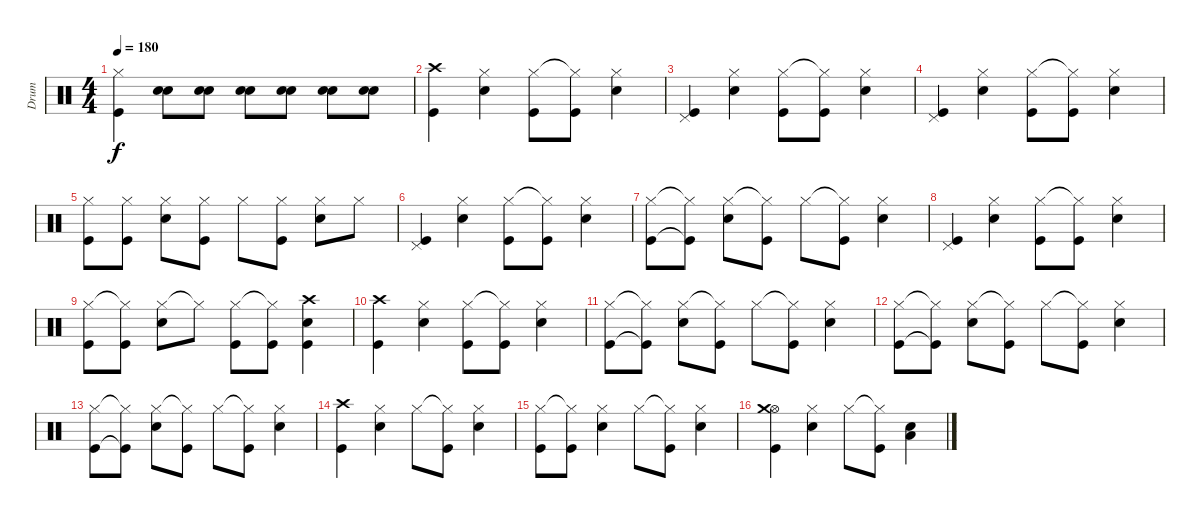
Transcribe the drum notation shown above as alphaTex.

\track ("Drum" "Drum") {instrument percussion}
\staff {score}
\articulation defaults
\ts (4 4)
\tempo 180
\clef neutral
\ks c
("Hi-Hat (closed)" "Kick (hit)").4{dy f} ("Snare (hit) 2" "Snare (hit) 2").8 ("Snare (hit) 2" "Snare (hit) 2").8 ("Snare (hit) 2" "Snare (hit) 2").8 ("Snare (hit) 2" "Snare (hit) 2").8 ("Snare (hit) 2" "Snare (hit) 2").8 ("Snare (hit) 2" "Snare (hit) 2").8 |
("Crash high (hit)" "Kick (hit)").4 ("Hi-Hat (closed)" "Snare (hit) 2").4 ("Hi-Hat (closed)" "Kick (hit)").8 ("Hi-Hat (closed)"{t} "Kick (hit)").8 ("Hi-Hat (closed)" "Snare (hit) 2").4 |
("Pedal Hi-Hat (hit)" "Kick (hit)").4 ("Hi-Hat (closed)" "Snare (hit) 2").4 ("Hi-Hat (closed)" "Kick (hit)").8 ("Hi-Hat (closed)"{t} "Kick (hit)").8 ("Hi-Hat (closed)" "Snare (hit) 2").4 |
("Pedal Hi-Hat (hit)" "Kick (hit)").4 ("Hi-Hat (closed)" "Snare (hit) 2").4 ("Hi-Hat (closed)" "Kick (hit)").8 ("Hi-Hat (closed)"{t} "Kick (hit)").8 ("Hi-Hat (closed)" "Snare (hit) 2").4 |
("Hi-Hat (closed)" "Kick (hit)").8 ("Hi-Hat (closed)" "Kick (hit)").8 ("Hi-Hat (closed)" "Snare (hit) 2").8 ("Hi-Hat (closed)" "Kick (hit)").8 "Hi-Hat (closed)".8 ("Hi-Hat (closed)" "Kick (hit)").8 ("Hi-Hat (closed)" "Snare (hit) 2").8 "Hi-Hat (closed)".8 |
("Pedal Hi-Hat (hit)" "Kick (hit)").4 ("Hi-Hat (closed)" "Snare (hit) 2").4 ("Hi-Hat (closed)" "Kick (hit)").8 ("Hi-Hat (closed)"{t} "Kick (hit)").8 ("Hi-Hat (closed)" "Snare (hit) 2").4 |
("Hi-Hat (closed)" "Kick (hit)").8 ("Hi-Hat (closed)"{t} "Kick (hit)"{t}).8 ("Hi-Hat (closed)" "Snare (hit) 2").8 ("Hi-Hat (closed)"{t} "Kick (hit)").8 "Hi-Hat (closed)".8 ("Hi-Hat (closed)"{t} "Kick (hit)").8 ("Hi-Hat (closed)" "Snare (hit) 2").4 |
("Pedal Hi-Hat (hit)" "Kick (hit)").4 ("Hi-Hat (closed)" "Snare (hit) 2").4 ("Hi-Hat (closed)" "Kick (hit)").8 ("Hi-Hat (closed)"{t} "Kick (hit)").8 ("Hi-Hat (closed)" "Snare (hit) 2").4 |
("Hi-Hat (closed)" "Kick (hit)").8 ("Hi-Hat (closed)"{t} "Kick (hit)").8 ("Hi-Hat (closed)" "Snare (hit) 2").8 "Hi-Hat (closed)"{t}.8 ("Hi-Hat (closed)" "Kick (hit)").8 ("Hi-Hat (closed)"{t} "Kick (hit)").8 ("Crash high (hit)" "Snare (hit) 2" "Kick (hit)").4 |
("Crash high (hit)" "Kick (hit)").4 ("Hi-Hat (closed)" "Snare (hit) 2").4 ("Hi-Hat (closed)" "Kick (hit)").8 ("Hi-Hat (closed)"{t} "Kick (hit)").8 ("Hi-Hat (closed)" "Snare (hit) 2").4 |
("Hi-Hat (closed)" "Kick (hit)").8 ("Hi-Hat (closed)"{t} "Kick (hit)"{t}).8 ("Hi-Hat (closed)" "Snare (hit) 2").8 ("Hi-Hat (closed)"{t} "Kick (hit)").8 "Hi-Hat (closed)".8 ("Hi-Hat (closed)"{t} "Kick (hit)").8 ("Hi-Hat (closed)" "Snare (hit) 2").4 |
("Hi-Hat (closed)" "Kick (hit)").8 ("Hi-Hat (closed)"{t} "Kick (hit)"{t}).8 ("Hi-Hat (closed)" "Snare (hit) 2").8 ("Hi-Hat (closed)"{t} "Kick (hit)").8 "Hi-Hat (closed)".8 ("Hi-Hat (closed)"{t} "Kick (hit)").8 ("Hi-Hat (closed)" "Snare (hit) 2").4 |
("Hi-Hat (closed)" "Kick (hit)").8 ("Hi-Hat (closed)"{t} "Kick (hit)"{t}).8 ("Hi-Hat (closed)" "Snare (hit) 2").8 ("Hi-Hat (closed)"{t} "Kick (hit)").8 "Hi-Hat (closed)".8 ("Hi-Hat (closed)"{t} "Kick (hit)").8 ("Hi-Hat (closed)" "Snare (hit) 2").4 |
("Crash high (hit)" "Kick (hit)").4 ("Hi-Hat (closed)" "Snare (hit) 2").4 "Hi-Hat (closed)".8 ("Hi-Hat (closed)"{t} "Kick (hit)").8 ("Hi-Hat (closed)" "Snare (hit) 2").4 |
("Hi-Hat (closed)" "Kick (hit)").8 ("Hi-Hat (closed)"{t} "Kick (hit)").8 ("Hi-Hat (closed)" "Snare (hit) 2").4 "Hi-Hat (closed)".8 ("Hi-Hat (closed)"{t} "Kick (hit)").8 ("Hi-Hat (closed)" "Snare (hit) 2").4 |
("Hi-Hat (open)" "Crash medium (hit)" "Kick (hit)").4 ("Hi-Hat (closed)" "Snare (hit) 2").4 "Hi-Hat (closed)".8 ("Hi-Hat (closed)"{t} "Kick (hit)").8 ("Low Floor Tom (hit)" "Snare (hit) 2").4
